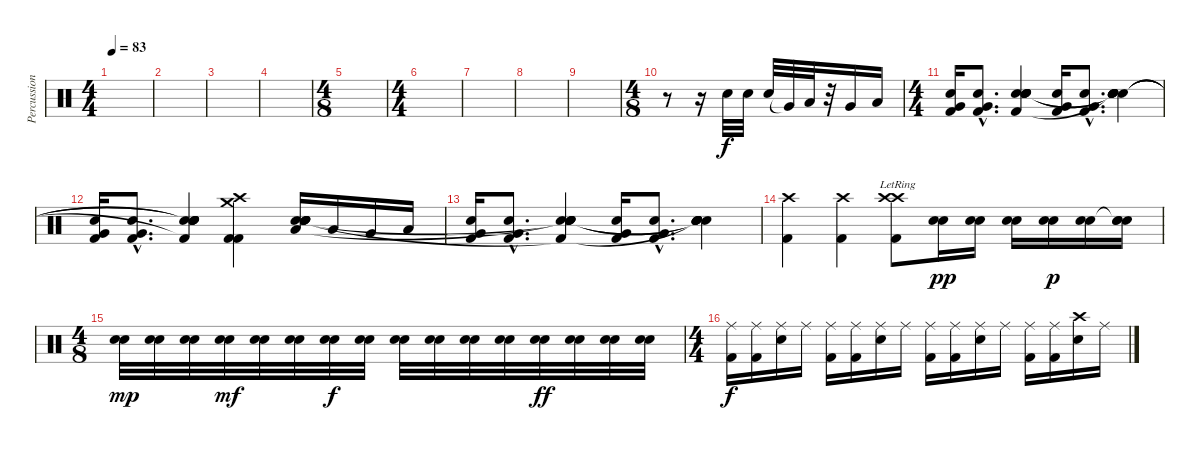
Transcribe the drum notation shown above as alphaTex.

\track ("Percussions" "Percussion") {instrument percussion}
\staff {score}
\articulation defaults
\ts (4 4)
\tempo 83
\clef neutral
\ks c
|
|
|
|
\ts (4 8)
|
\ts (4 4)
|
|
|
|
\ts (4 8)
r.8 r.16 "Electric Snare (hit)".32 "Electric Snare (hit)".32 "Electric Snare (hit)".32 "Very Low Tom (hit)"{t}.32 "Low Tom (hit)".32 r.32 "Very Low Tom (hit)".16 "Low Floor Tom (hit)".16 |
\ts (4 4)
("Snare (hit) 2" "Very Low Tom (hit)" "Kick (hit) 2").16 ("Snare (hit) 2"{hac} "Very Low Tom (hit)"{hac} "Kick (hit) 2"{hac}).8{d} ("Snare (hit)"{x} "Snare (hit)"{x} "Snare (hit)"{x} "Snare (hit)" "Snare (hit)" "Kick (hit) 2").4 ("Snare (hit) 2" "Very Low Tom (hit)" "Kick (hit) 2").16 ("Snare (hit) 2"{hac} "Very Low Tom (hit)"{hac} "Kick (hit) 2"{hac}).8{d} ("Snare (hit)"{x} "Snare (hit)"{x} "Snare (hit)"{x} "Snare (hit)"{t} "Snare (hit)"{t} "Snare (hit)"{t}).4 |
("Snare (hit) 2" "Very Low Tom (hit)" "Kick (hit) 2").16 ("Snare (hit) 2"{hac} "Very Low Tom (hit)"{hac} "Kick (hit) 2"{hac}).8{d} ("Snare (hit)"{x} "Snare (hit)"{x} "Snare (hit)"{x} "Snare (hit)"{t} "Snare (hit)"{t} "Kick (hit) 2"{t}).4 ("Crash medium (hit)" "Crash high (hit)" "Kick (hit) 2" "Kick (hit) 2").4 ("Snare (hit)"{x} "Snare (hit)"{x} "Snare (hit)"{x} "Snare (hit)"{x} "Low Tom (hit)"{x} "Snare (hit)"{x}).16 "Low Tom (hit)".16 "Very Low Tom (hit)".16 "Low Floor Tom (hit)".16 |
("Snare (hit) 2" "Very Low Tom (hit)" "Kick (hit) 2").16 ("Snare (hit) 2"{hac} "Very Low Tom (hit)"{hac} "Kick (hit) 2"{hac}).8{d} ("Snare (hit)"{x} "Snare (hit)"{x} "Snare (hit)"{x} "Snare (hit)"{t} "Snare (hit)"{t} "Kick (hit) 2"{t}).4 ("Snare (hit) 2" "Very Low Tom (hit)" "Kick (hit) 2").16 ("Snare (hit) 2"{hac} "Very Low Tom (hit)"{hac} "Kick (hit) 2"{hac}).8{d} ("Snare (hit)"{x} "Snare (hit)"{x} "Snare (hit)"{x} "Snare (hit)"{t} "Snare (hit)"{t} "Snare (hit)"{t}).4 |
("Crash high (hit)" "Kick (hit) 2").4 ("Crash high (hit)" "Kick (hit) 2").4 ("Crash high (hit)"{lr} "Crash high (hit)" "Kick (hit) 2").8 ("Snare (hit) 2" "Snare (hit) 2").16{dy pp} ("Snare (hit) 2" "Snare (hit) 2").16 ("Snare (hit) 2" "Snare (hit) 2").16 ("Snare (hit) 2" "Snare (hit) 2").16{dy p} ("Snare (hit) 2" "Snare (hit) 2").16 ("Snare (hit)"{t} "Snare (hit) 2" "Snare (hit) 2").16 |
\ts (4 8)
("Snare (hit) 2" "Snare (hit) 2").32{dy mp} ("Snare (hit) 2" "Snare (hit) 2").32 ("Snare (hit) 2" "Snare (hit) 2").32 ("Snare (hit) 2" "Snare (hit) 2").32{dy mf} ("Snare (hit) 2" "Snare (hit) 2").32 ("Snare (hit) 2" "Snare (hit) 2").32 ("Snare (hit) 2" "Snare (hit) 2").32{dy f} ("Snare (hit) 2" "Snare (hit) 2").32 ("Electric Snare (hit)" "Snare (hit) 2").32 ("Electric Snare (hit)" "Snare (hit) 2").32 ("Electric Snare (hit)" "Snare (hit) 2").32 ("Electric Snare (hit)" "Snare (hit) 2").32 ("Electric Snare (hit)" "Snare (hit) 2").32{dy ff} ("Electric Snare (hit)" "Snare (hit) 2").32 ("Electric Snare (hit)" "Snare (hit) 2").32 ("Electric Snare (hit)" "Snare (hit) 2").32 |
\ts (4 4)
("Ride (middle)" "Kick (hit) 2").16{dy f} ("Ride (middle)" "Kick (hit) 2").16 ("Ride (middle)" "Electric Snare (hit)").16 "Ride (middle)".16 ("Ride (middle)" "Kick (hit) 2").16 ("Ride (middle)" "Kick (hit) 2").16 ("Ride (middle)" "Electric Snare (hit)").16 "Ride (middle)".16 ("Ride (middle)" "Kick (hit) 2").16 ("Ride (middle)" "Kick (hit) 2").16 ("Ride (middle)" "Electric Snare (hit)").16 "Ride (middle)".16 ("Ride (middle)" "Kick (hit) 2").16 ("Ride (middle)" "Kick (hit) 2").16 ("Crash high (hit)" "Electric Snare (hit)").16 "Ride (middle)".16
